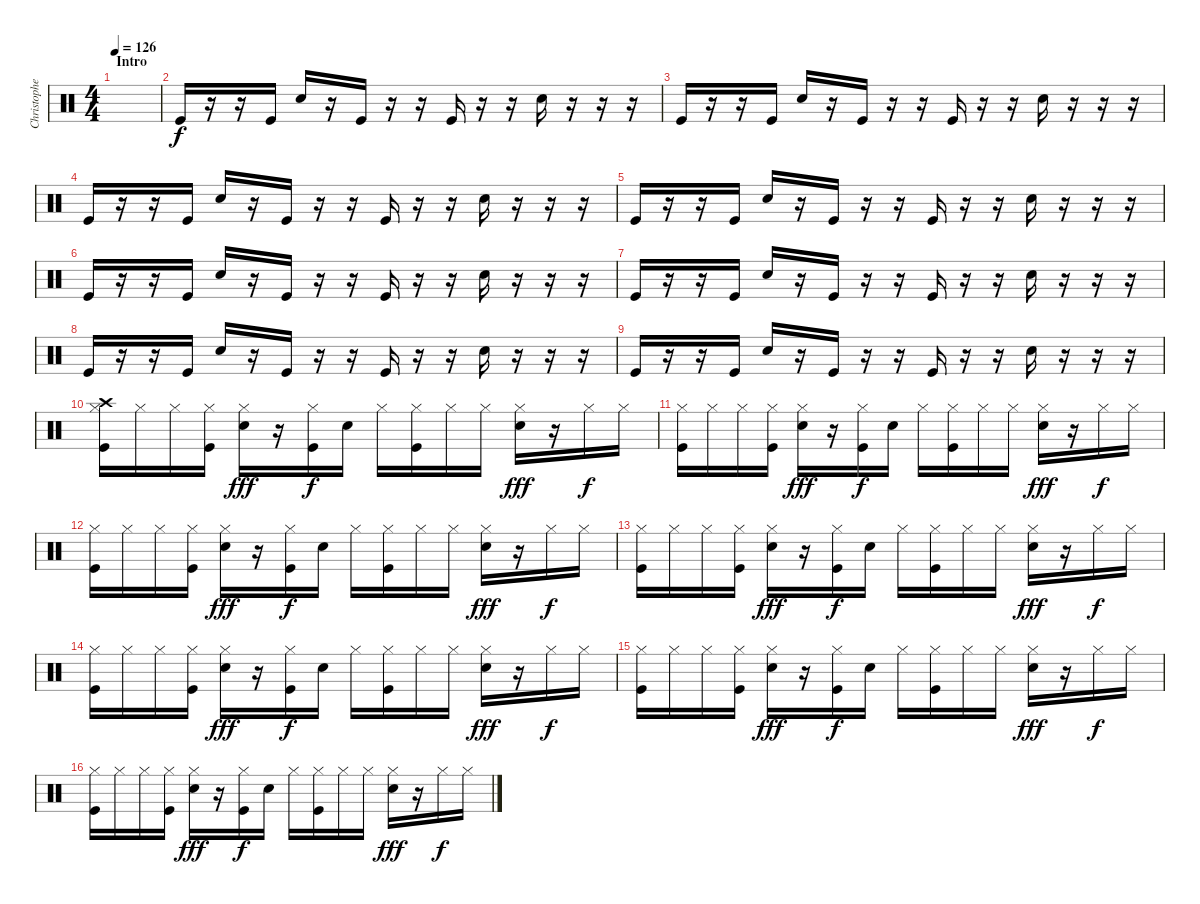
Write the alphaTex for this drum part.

\track ("Christopher - Drums" "Christophe") {instrument percussion}
\staff {score}
\articulation defaults
\ts (4 4)
\section ("" "Intro")
\tempo 126
\clef neutral
\ks c
|
"Kick (hit)".16 r.16 r.16 "Kick (hit)".16 "Snare (hit) 2".16 r.16 "Kick (hit)".16 r.16 r.16 "Kick (hit)".16 r.16 r.16 "Snare (hit) 2".16 r.16 r.16 r.16 |
"Kick (hit)".16 r.16 r.16 "Kick (hit)".16 "Snare (hit) 2".16 r.16 "Kick (hit)".16 r.16 r.16 "Kick (hit)".16 r.16 r.16 "Snare (hit) 2".16 r.16 r.16 r.16 |
"Kick (hit)".16 r.16 r.16 "Kick (hit)".16 "Snare (hit) 2".16 r.16 "Kick (hit)".16 r.16 r.16 "Kick (hit)".16 r.16 r.16 "Snare (hit) 2".16 r.16 r.16 r.16 |
"Kick (hit)".16 r.16 r.16 "Kick (hit)".16 "Snare (hit) 2".16 r.16 "Kick (hit)".16 r.16 r.16 "Kick (hit)".16 r.16 r.16 "Snare (hit) 2".16 r.16 r.16 r.16 |
"Kick (hit)".16 r.16 r.16 "Kick (hit)".16 "Snare (hit) 2".16 r.16 "Kick (hit)".16 r.16 r.16 "Kick (hit)".16 r.16 r.16 "Snare (hit) 2".16 r.16 r.16 r.16 |
"Kick (hit)".16 r.16 r.16 "Kick (hit)".16 "Snare (hit) 2".16 r.16 "Kick (hit)".16 r.16 r.16 "Kick (hit)".16 r.16 r.16 "Snare (hit) 2".16 r.16 r.16 r.16 |
"Kick (hit)".16 r.16 r.16 "Kick (hit)".16 "Snare (hit) 2".16 r.16 "Kick (hit)".16 r.16 r.16 "Kick (hit)".16 r.16 r.16 "Snare (hit) 2".16 r.16 r.16 r.16 |
"Kick (hit)".16 r.16 r.16 "Kick (hit)".16 "Snare (hit) 2".16 r.16 "Kick (hit)".16 r.16 r.16 "Kick (hit)".16 r.16 r.16 "Snare (hit) 2".16 r.16 r.16 r.16 |
("Crash high (hit)" "Hi-Hat (closed)" "Kick (hit)").16 "Hi-Hat (closed)".16 "Hi-Hat (closed)".16 ("Hi-Hat (closed)" "Kick (hit)").16 ("Hi-Hat (closed)" "Snare (hit) 2").16{dy fff} r.16 ("Hi-Hat (closed)" "Kick (hit)").16{dy f} "Snare (hit) 2".16 "Hi-Hat (closed)".16 ("Hi-Hat (closed)" "Kick (hit)").16 "Hi-Hat (closed)".16 "Hi-Hat (closed)".16 ("Hi-Hat (closed)" "Snare (hit) 2").16{dy fff} r.16 "Hi-Hat (closed)".16{dy f} "Hi-Hat (closed)".16 |
("Hi-Hat (closed)" "Kick (hit)").16 "Hi-Hat (closed)".16 "Hi-Hat (closed)".16 ("Hi-Hat (closed)" "Kick (hit)").16 ("Hi-Hat (closed)" "Snare (hit) 2").16{dy fff} r.16 ("Hi-Hat (closed)" "Kick (hit)").16{dy f} "Snare (hit) 2".16 "Hi-Hat (closed)".16 ("Hi-Hat (closed)" "Kick (hit)").16 "Hi-Hat (closed)".16 "Hi-Hat (closed)".16 ("Hi-Hat (closed)" "Snare (hit) 2").16{dy fff} r.16 "Hi-Hat (closed)".16{dy f} "Hi-Hat (closed)".16 |
("Hi-Hat (closed)" "Kick (hit)").16 "Hi-Hat (closed)".16 "Hi-Hat (closed)".16 ("Hi-Hat (closed)" "Kick (hit)").16 ("Hi-Hat (closed)" "Snare (hit) 2").16{dy fff} r.16 ("Hi-Hat (closed)" "Kick (hit)").16{dy f} "Snare (hit) 2".16 "Hi-Hat (closed)".16 ("Hi-Hat (closed)" "Kick (hit)").16 "Hi-Hat (closed)".16 "Hi-Hat (closed)".16 ("Hi-Hat (closed)" "Snare (hit) 2").16{dy fff} r.16 "Hi-Hat (closed)".16{dy f} "Hi-Hat (closed)".16 |
("Hi-Hat (closed)" "Kick (hit)").16 "Hi-Hat (closed)".16 "Hi-Hat (closed)".16 ("Hi-Hat (closed)" "Kick (hit)").16 ("Hi-Hat (closed)" "Snare (hit) 2").16{dy fff} r.16 ("Hi-Hat (closed)" "Kick (hit)").16{dy f} "Snare (hit) 2".16 "Hi-Hat (closed)".16 ("Hi-Hat (closed)" "Kick (hit)").16 "Hi-Hat (closed)".16 "Hi-Hat (closed)".16 ("Hi-Hat (closed)" "Snare (hit) 2").16{dy fff} r.16 "Hi-Hat (closed)".16{dy f} "Hi-Hat (closed)".16 |
("Hi-Hat (closed)" "Kick (hit)").16 "Hi-Hat (closed)".16 "Hi-Hat (closed)".16 ("Hi-Hat (closed)" "Kick (hit)").16 ("Hi-Hat (closed)" "Snare (hit) 2").16{dy fff} r.16 ("Hi-Hat (closed)" "Kick (hit)").16{dy f} "Snare (hit) 2".16 "Hi-Hat (closed)".16 ("Hi-Hat (closed)" "Kick (hit)").16 "Hi-Hat (closed)".16 "Hi-Hat (closed)".16 ("Hi-Hat (closed)" "Snare (hit) 2").16{dy fff} r.16 "Hi-Hat (closed)".16{dy f} "Hi-Hat (closed)".16 |
("Hi-Hat (closed)" "Kick (hit)").16 "Hi-Hat (closed)".16 "Hi-Hat (closed)".16 ("Hi-Hat (closed)" "Kick (hit)").16 ("Hi-Hat (closed)" "Snare (hit) 2").16{dy fff} r.16 ("Hi-Hat (closed)" "Kick (hit)").16{dy f} "Snare (hit) 2".16 "Hi-Hat (closed)".16 ("Hi-Hat (closed)" "Kick (hit)").16 "Hi-Hat (closed)".16 "Hi-Hat (closed)".16 ("Hi-Hat (closed)" "Snare (hit) 2").16{dy fff} r.16 "Hi-Hat (closed)".16{dy f} "Hi-Hat (closed)".16 |
("Hi-Hat (closed)" "Kick (hit)").16 "Hi-Hat (closed)".16 "Hi-Hat (closed)".16 ("Hi-Hat (closed)" "Kick (hit)").16 ("Hi-Hat (closed)" "Snare (hit) 2").16{dy fff} r.16 ("Hi-Hat (closed)" "Kick (hit)").16{dy f} "Snare (hit) 2".16 "Hi-Hat (closed)".16 ("Hi-Hat (closed)" "Kick (hit)").16 "Hi-Hat (closed)".16 "Hi-Hat (closed)".16 ("Hi-Hat (closed)" "Snare (hit) 2").16{dy fff} r.16 "Hi-Hat (closed)".16{dy f} "Hi-Hat (closed)".16
